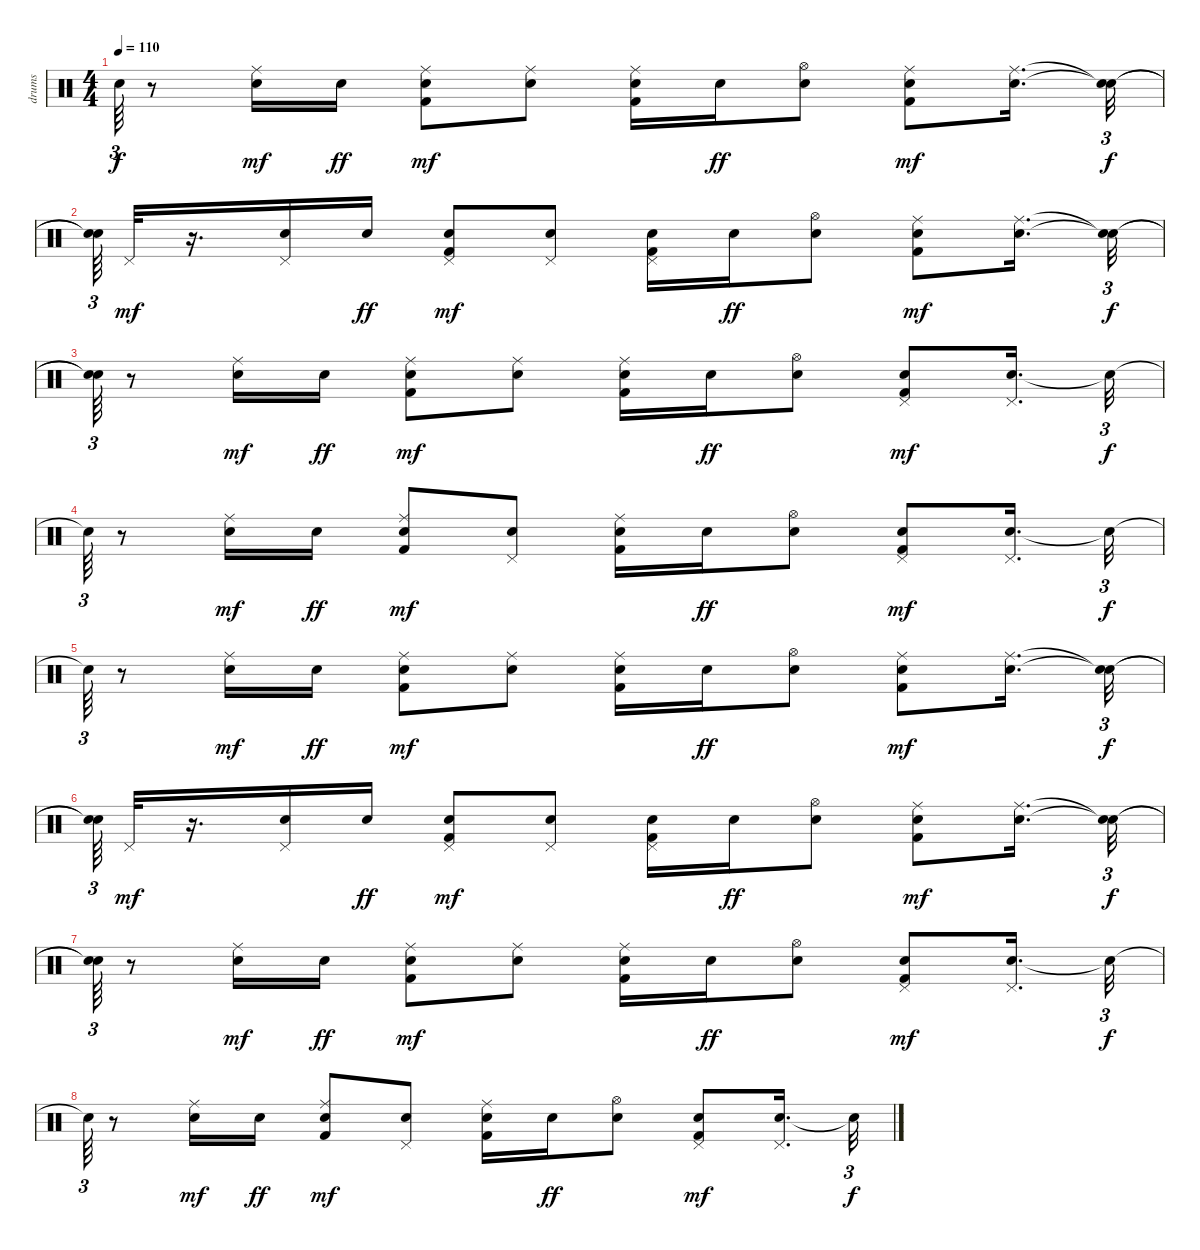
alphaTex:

\track ("drums               " "drums     ") {instrument percussion}
\staff {score}
\articulation defaults
\ts (4 4)
\tempo 110
\clef neutral
\ks c "Snare (hit)"{t}.64{tu (3 2) dy f}
r.8 ("Snare (hit) 2" "Ride (middle)").16{dy mf} "Snare (hit) 2".16{dy ff} ("Kick (hit) 2" "Snare (hit) 2" "Ride (middle)").8{dy mf} ("Snare (hit) 2" "Ride (middle)").8 ("Kick (hit) 2" "Snare (hit) 2" "Ride (middle)").16 "Snare (hit) 2".16{dy ff} ("Snare (hit) 2" "Hi-Hat (open)").8 ("Kick (hit) 2" "Snare (hit) 2" "Ride (middle)").8{dy mf} ("Snare (hit) 2" "Ride (middle)").16{d} ("Snare (hit)"{t} "Snare (hit)"{t}).32{tu (3 2) dy f} |
("Snare (hit)"{t} "Snare (hit)"{t}).64{tu (3 2)} "Pedal Hi-Hat (hit)".32{dy mf} r.16{d} ("Snare (hit) 2" "Pedal Hi-Hat (hit)").16 "Snare (hit) 2".16{dy ff} ("Kick (hit) 2" "Snare (hit) 2" "Pedal Hi-Hat (hit)").8{dy mf} ("Snare (hit) 2" "Pedal Hi-Hat (hit)").8 ("Kick (hit) 2" "Snare (hit) 2" "Pedal Hi-Hat (hit)").16 "Snare (hit) 2".16{dy ff} ("Snare (hit) 2" "Hi-Hat (open)").8 ("Kick (hit) 2" "Snare (hit) 2" "Ride (middle)").8{dy mf} ("Snare (hit) 2" "Ride (middle)").16{d} ("Snare (hit)"{t} "Snare (hit)"{t}).32{tu (3 2) dy f} |
("Snare (hit)"{t} "Snare (hit)"{t}).64{tu (3 2)} r.8 ("Snare (hit) 2" "Ride (middle)").16{dy mf} "Snare (hit) 2".16{dy ff} ("Kick (hit) 2" "Snare (hit) 2" "Ride (middle)").8{dy mf} ("Snare (hit) 2" "Ride (middle)").8 ("Kick (hit) 2" "Snare (hit) 2" "Ride (middle)").16 "Snare (hit) 2".16{dy ff} ("Snare (hit) 2" "Hi-Hat (open)").8 ("Kick (hit) 2" "Snare (hit) 2" "Pedal Hi-Hat (hit)").8{dy mf} ("Snare (hit) 2" "Pedal Hi-Hat (hit)").16{d} "Snare (hit)"{t}.32{tu (3 2) dy f} |
"Snare (hit)"{t}.64{tu (3 2)} r.8 ("Snare (hit) 2" "Ride (middle)").16{dy mf} "Snare (hit) 2".16{dy ff} ("Kick (hit) 2" "Snare (hit) 2" "Ride (middle)").8{dy mf} ("Snare (hit) 2" "Pedal Hi-Hat (hit)").8 ("Kick (hit) 2" "Snare (hit) 2" "Ride (middle)").16 "Snare (hit) 2".16{dy ff} ("Snare (hit) 2" "Hi-Hat (open)").8 ("Kick (hit) 2" "Snare (hit) 2" "Pedal Hi-Hat (hit)").8{dy mf} ("Snare (hit) 2" "Pedal Hi-Hat (hit)").16{d} "Snare (hit)"{t}.32{tu (3 2) dy f} |
"Snare (hit)"{t}.64{tu (3 2)} r.8 ("Snare (hit) 2" "Ride (middle)").16{dy mf} "Snare (hit) 2".16{dy ff} ("Kick (hit) 2" "Snare (hit) 2" "Ride (middle)").8{dy mf} ("Snare (hit) 2" "Ride (middle)").8 ("Kick (hit) 2" "Snare (hit) 2" "Ride (middle)").16 "Snare (hit) 2".16{dy ff} ("Snare (hit) 2" "Hi-Hat (open)").8 ("Kick (hit) 2" "Snare (hit) 2" "Ride (middle)").8{dy mf} ("Snare (hit) 2" "Ride (middle)").16{d} ("Snare (hit)"{t} "Snare (hit)"{t}).32{tu (3 2) dy f} |
("Snare (hit)"{t} "Snare (hit)"{t}).64{tu (3 2)} "Pedal Hi-Hat (hit)".32{dy mf} r.16{d} ("Snare (hit) 2" "Pedal Hi-Hat (hit)").16 "Snare (hit) 2".16{dy ff} ("Kick (hit) 2" "Snare (hit) 2" "Pedal Hi-Hat (hit)").8{dy mf} ("Snare (hit) 2" "Pedal Hi-Hat (hit)").8 ("Kick (hit) 2" "Snare (hit) 2" "Pedal Hi-Hat (hit)").16 "Snare (hit) 2".16{dy ff} ("Snare (hit) 2" "Hi-Hat (open)").8 ("Kick (hit) 2" "Snare (hit) 2" "Ride (middle)").8{dy mf} ("Snare (hit) 2" "Ride (middle)").16{d} ("Snare (hit)"{t} "Snare (hit)"{t}).32{tu (3 2) dy f} |
("Snare (hit)"{t} "Snare (hit)"{t}).64{tu (3 2)} r.8 ("Snare (hit) 2" "Ride (middle)").16{dy mf} "Snare (hit) 2".16{dy ff} ("Kick (hit) 2" "Snare (hit) 2" "Ride (middle)").8{dy mf} ("Snare (hit) 2" "Ride (middle)").8 ("Kick (hit) 2" "Snare (hit) 2" "Ride (middle)").16 "Snare (hit) 2".16{dy ff} ("Snare (hit) 2" "Hi-Hat (open)").8 ("Kick (hit) 2" "Snare (hit) 2" "Pedal Hi-Hat (hit)").8{dy mf} ("Snare (hit) 2" "Pedal Hi-Hat (hit)").16{d} "Snare (hit)"{t}.32{tu (3 2) dy f} |
"Snare (hit)"{t}.64{tu (3 2)} r.8 ("Snare (hit) 2" "Ride (middle)").16{dy mf} "Snare (hit) 2".16{dy ff} ("Kick (hit) 2" "Snare (hit) 2" "Ride (middle)").8{dy mf} ("Snare (hit) 2" "Pedal Hi-Hat (hit)").8 ("Kick (hit) 2" "Snare (hit) 2" "Ride (middle)").16 "Snare (hit) 2".16{dy ff} ("Snare (hit) 2" "Hi-Hat (open)").8 ("Kick (hit) 2" "Snare (hit) 2" "Pedal Hi-Hat (hit)").8{dy mf} ("Snare (hit) 2" "Pedal Hi-Hat (hit)").16{d} "Snare (hit)"{t}.32{tu (3 2) dy f}
